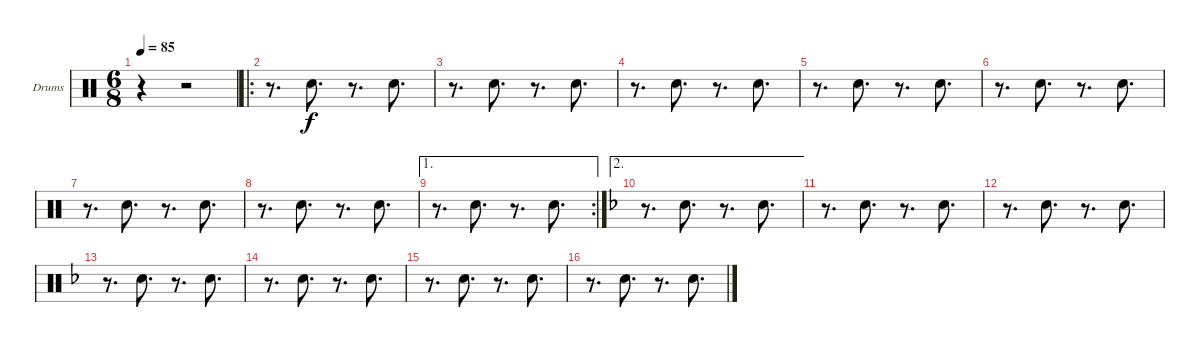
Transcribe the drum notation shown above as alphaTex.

\bracketExtendMode groupsimilarinstruments
\firstSystemTrackNameOrientation horizontal
\otherSystemsTrackNameOrientation horizontal
\track ("Drumkit" "Drums") {instrument percussion}
\staff {score}
\articulation defaults
\ts (6 8)
\beaming (8 2 2 2 2)
\tempo 85
\clef neutral
\ks c
r.4{dy f} r.2 |
\ro
r.8{d} "Snare (hit) 2".8{d} r.8{d} "Snare (hit) 2".8{d} |
r.8{d} "Snare (hit) 2".8{d} r.8{d} "Snare (hit) 2".8{d} |
r.8{d} "Snare (hit) 2".8{d} r.8{d} "Snare (hit) 2".8{d} |
r.8{d} "Snare (hit) 2".8{d} r.8{d} "Snare (hit) 2".8{d} |
r.8{d} "Snare (hit) 2".8{d} r.8{d} "Snare (hit) 2".8{d} |
r.8{d} "Snare (hit) 2".8{d} r.8{d} "Snare (hit) 2".8{d} |
r.8{d} "Snare (hit) 2".8{d} r.8{d} "Snare (hit) 2".8{d} |
\ae 1
\rc 2
r.8{d} "Snare (hit) 2".8{d} r.8{d} "Snare (hit) 2".8{d} |
\ae 2
\ks f
r.8{d} "Snare (hit) 2".8{d} r.8{d} "Snare (hit) 2".8{d} |
r.8{d} "Snare (hit) 2".8{d} r.8{d} "Snare (hit) 2".8{d} |
r.8{d} "Snare (hit) 2".8{d} r.8{d} "Snare (hit) 2".8{d} |
r.8{d} "Snare (hit) 2".8{d} r.8{d} "Snare (hit) 2".8{d} |
r.8{d} "Snare (hit) 2".8{d} r.8{d} "Snare (hit) 2".8{d} |
r.8{d} "Snare (hit) 2".8{d} r.8{d} "Snare (hit) 2".8{d} |
r.8{d} "Snare (hit) 2".8{d} r.8{d} "Snare (hit) 2".8{d}
